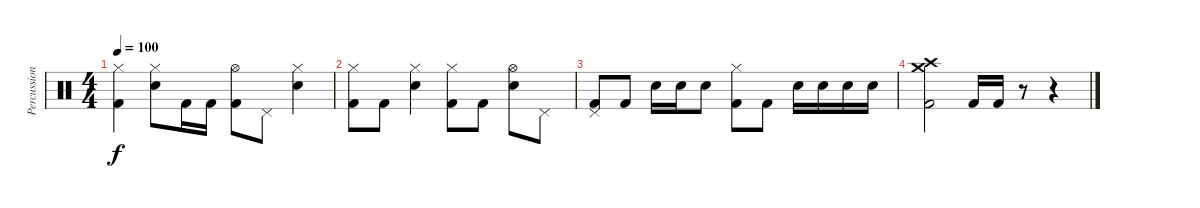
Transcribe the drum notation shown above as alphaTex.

\track ("Percussioni" "Percussion") {instrument percussion}
\staff {score}
\articulation defaults
\ts (4 4)
\tempo 100
\clef neutral
\ks c
("Hi-Hat (closed)" "Kick (hit) 2").4{dy f} ("Hi-Hat (closed)" "Electric Snare (hit)").8 "Kick (hit) 2".16 "Kick (hit) 2".16 ("Hi-Hat (open)" "Kick (hit) 2").8 "Pedal Hi-Hat (hit)".8 ("Hi-Hat (closed)" "Electric Snare (hit)").4 |
("Hi-Hat (closed)" "Kick (hit) 2").8 "Kick (hit) 2".8 ("Hi-Hat (closed)" "Electric Snare (hit)").4 ("Hi-Hat (closed)" "Kick (hit) 2").8 "Kick (hit) 2".8 ("Hi-Hat (open)" "Electric Snare (hit)").8 "Pedal Hi-Hat (hit)".8 |
("Pedal Hi-Hat (hit)" "Kick (hit) 2").8 "Kick (hit) 2".8 "Electric Snare (hit)".16 "Electric Snare (hit)".16 "Electric Snare (hit)".8 ("Hi-Hat (closed)" "Kick (hit) 2").8 "Kick (hit) 2".8 "Electric Snare (hit)".16 "Electric Snare (hit)".16 "Electric Snare (hit)".16 "Electric Snare (hit)".16 |
("Crash high (hit)" "Crash medium (hit)" "Kick (hit) 2").2 "Kick (hit) 2".16 "Kick (hit) 2".16 r.8 r.4
